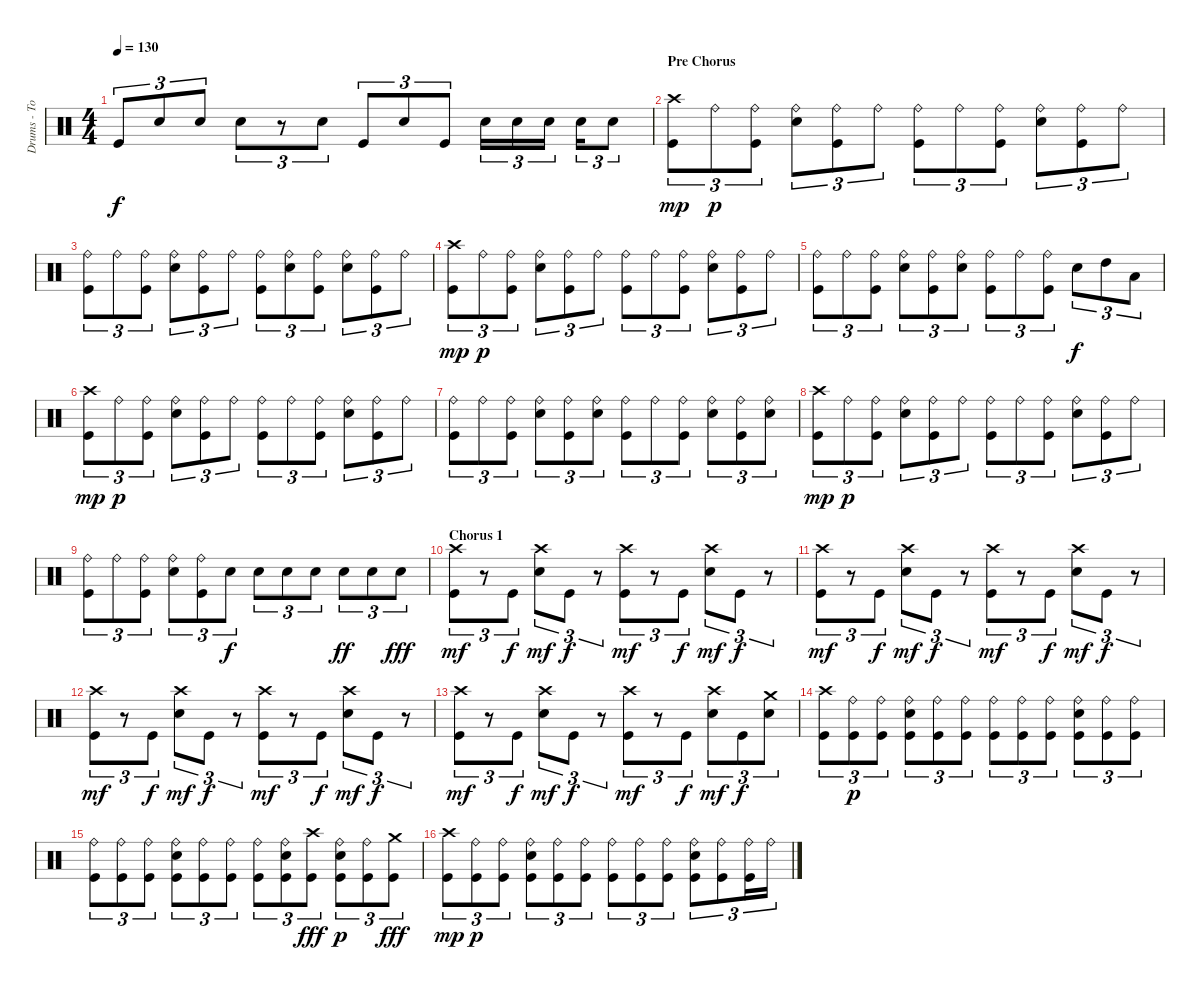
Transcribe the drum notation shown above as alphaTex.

\track ("Drums - Tomas" "Drums - To") {instrument percussion}
\staff {score}
\articulation defaults
\ts (4 4)
\tempo 130
\clef neutral
\ks c "Kick (hit)".8{tu (3 2) dy f} "Electric Snare (hit)".8{tu (3 2)} "Electric Snare (hit)".8{tu (3 2)} "Electric Snare (hit)".8{tu (3 2)}
r.8{tu (3 2)} "Electric Snare (hit)".8{tu (3 2)} "Kick (hit)".8{tu (3 2)} "Electric Snare (hit)".8{tu (3 2)} "Kick (hit)".8{tu (3 2)} "Electric Snare (hit)".16{tu (3 2)} "Electric Snare (hit)".16{tu (3 2)} "Electric Snare (hit)".16{tu (3 2)} "Electric Snare (hit)".16{tu (3 2)} "Electric Snare (hit)".8{tu (3 2)} |
\section ("" "Pre Chorus")
("Crash high (hit)" "Kick (hit)").8{tu (3 2) dy mp} "Ride (bell)".8{tu (3 2) dy p} ("Ride (bell)" "Kick (hit)").8{tu (3 2)} ("Ride (bell)" "Electric Snare (hit)").8{tu (3 2)} ("Ride (bell)" "Kick (hit)").8{tu (3 2)} "Ride (bell)".8{tu (3 2)} ("Ride (bell)" "Kick (hit)").8{tu (3 2)} "Ride (bell)".8{tu (3 2)} ("Ride (bell)" "Kick (hit)").8{tu (3 2)} ("Ride (bell)" "Electric Snare (hit)").8{tu (3 2)} ("Ride (bell)" "Kick (hit)").8{tu (3 2)} "Ride (bell)".8{tu (3 2)} |
("Ride (bell)" "Kick (hit)").8{tu (3 2)} "Ride (bell)".8{tu (3 2)} ("Ride (bell)" "Kick (hit)").8{tu (3 2)} ("Ride (bell)" "Electric Snare (hit)").8{tu (3 2)} ("Ride (bell)" "Kick (hit)").8{tu (3 2)} "Ride (bell)".8{tu (3 2)} ("Ride (bell)" "Kick (hit)").8{tu (3 2)} ("Ride (bell)" "Electric Snare (hit)").8{tu (3 2)} ("Ride (bell)" "Kick (hit)").8{tu (3 2)} ("Ride (bell)" "Electric Snare (hit)").8{tu (3 2)} ("Ride (bell)" "Kick (hit)").8{tu (3 2)} "Ride (bell)".8{tu (3 2)} |
("Crash high (hit)" "Kick (hit)").8{tu (3 2) dy mp} "Ride (bell)".8{tu (3 2) dy p} ("Ride (bell)" "Kick (hit)").8{tu (3 2)} ("Ride (bell)" "Electric Snare (hit)").8{tu (3 2)} ("Ride (bell)" "Kick (hit)").8{tu (3 2)} "Ride (bell)".8{tu (3 2)} ("Ride (bell)" "Kick (hit)").8{tu (3 2)} "Ride (bell)".8{tu (3 2)} ("Ride (bell)" "Kick (hit)").8{tu (3 2)} ("Ride (bell)" "Electric Snare (hit)").8{tu (3 2)} ("Ride (bell)" "Kick (hit)").8{tu (3 2)} "Ride (bell)".8{tu (3 2)} |
("Ride (bell)" "Kick (hit)").8{tu (3 2)} "Ride (bell)".8{tu (3 2)} ("Ride (bell)" "Kick (hit)").8{tu (3 2)} ("Ride (bell)" "Electric Snare (hit)").8{tu (3 2)} ("Ride (bell)" "Kick (hit)").8{tu (3 2)} ("Ride (bell)" "Electric Snare (hit)").8{tu (3 2)} ("Ride (bell)" "Kick (hit)").8{tu (3 2)} "Ride (bell)".8{tu (3 2)} ("Ride (bell)" "Kick (hit)").8{tu (3 2)} "Electric Snare (hit)".8{tu (3 2) dy f} "High Tom (hit)".8{tu (3 2)} "Low Tom (hit)".8{tu (3 2)} |
("Crash high (hit)" "Kick (hit)").8{tu (3 2) dy mp} "Ride (bell)".8{tu (3 2) dy p} ("Ride (bell)" "Kick (hit)").8{tu (3 2)} ("Ride (bell)" "Electric Snare (hit)").8{tu (3 2)} ("Ride (bell)" "Kick (hit)").8{tu (3 2)} "Ride (bell)".8{tu (3 2)} ("Ride (bell)" "Kick (hit)").8{tu (3 2)} "Ride (bell)".8{tu (3 2)} ("Ride (bell)" "Kick (hit)").8{tu (3 2)} ("Ride (bell)" "Electric Snare (hit)").8{tu (3 2)} ("Ride (bell)" "Kick (hit)").8{tu (3 2)} "Ride (bell)".8{tu (3 2)} |
("Ride (bell)" "Kick (hit)").8{tu (3 2)} "Ride (bell)".8{tu (3 2)} ("Ride (bell)" "Kick (hit)").8{tu (3 2)} ("Ride (bell)" "Electric Snare (hit)").8{tu (3 2)} ("Ride (bell)" "Kick (hit)").8{tu (3 2)} ("Ride (bell)" "Electric Snare (hit)").8{tu (3 2)} ("Ride (bell)" "Kick (hit)").8{tu (3 2)} "Ride (bell)".8{tu (3 2)} ("Ride (bell)" "Kick (hit)").8{tu (3 2)} ("Ride (bell)" "Electric Snare (hit)").8{tu (3 2)} ("Ride (bell)" "Kick (hit)").8{tu (3 2)} ("Ride (bell)" "Electric Snare (hit)").8{tu (3 2)} |
("Crash high (hit)" "Kick (hit)").8{tu (3 2) dy mp} "Ride (bell)".8{tu (3 2) dy p} ("Ride (bell)" "Kick (hit)").8{tu (3 2)} ("Ride (bell)" "Electric Snare (hit)").8{tu (3 2)} ("Ride (bell)" "Kick (hit)").8{tu (3 2)} "Ride (bell)".8{tu (3 2)} ("Ride (bell)" "Kick (hit)").8{tu (3 2)} "Ride (bell)".8{tu (3 2)} ("Ride (bell)" "Kick (hit)").8{tu (3 2)} ("Ride (bell)" "Electric Snare (hit)").8{tu (3 2)} ("Ride (bell)" "Kick (hit)").8{tu (3 2)} "Ride (bell)".8{tu (3 2)} |
("Ride (bell)" "Kick (hit)").8{tu (3 2)} "Ride (bell)".8{tu (3 2)} ("Ride (bell)" "Kick (hit)").8{tu (3 2)} ("Ride (bell)" "Electric Snare (hit)").8{tu (3 2)} ("Ride (bell)" "Kick (hit)").8{tu (3 2)} "Electric Snare (hit)".8{tu (3 2) dy f} "Electric Snare (hit)".8{tu (3 2)} "Electric Snare (hit)".8{tu (3 2)} "Electric Snare (hit)".8{tu (3 2)} "Electric Snare (hit)".8{tu (3 2) dy ff} "Electric Snare (hit)".8{tu (3 2)} "Electric Snare (hit)".8{tu (3 2) dy fff} |
\section ("" "Chorus 1")
("Crash high (hit)" "Kick (hit)").8{tu (3 2) dy mf} r.8{tu (3 2)} "Kick (hit)".8{tu (3 2) dy f} ("Crash high (hit)" "Electric Snare (hit)").8{tu (3 2) dy mf} "Kick (hit)".8{tu (3 2) dy f} r.8{tu (3 2)} ("Crash high (hit)" "Kick (hit)").8{tu (3 2) dy mf} r.8{tu (3 2)} "Kick (hit)".8{tu (3 2) dy f} ("Crash high (hit)" "Electric Snare (hit)").8{tu (3 2) dy mf} "Kick (hit)".8{tu (3 2) dy f} r.8{tu (3 2)} |
("Crash high (hit)" "Kick (hit)").8{tu (3 2) dy mf} r.8{tu (3 2)} "Kick (hit)".8{tu (3 2) dy f} ("Crash high (hit)" "Electric Snare (hit)").8{tu (3 2) dy mf} "Kick (hit)".8{tu (3 2) dy f} r.8{tu (3 2)} ("Crash high (hit)" "Kick (hit)").8{tu (3 2) dy mf} r.8{tu (3 2)} "Kick (hit)".8{tu (3 2) dy f} ("Crash high (hit)" "Electric Snare (hit)").8{tu (3 2) dy mf} "Kick (hit)".8{tu (3 2) dy f} r.8{tu (3 2)} |
("Crash high (hit)" "Kick (hit)").8{tu (3 2) dy mf} r.8{tu (3 2)} "Kick (hit)".8{tu (3 2) dy f} ("Crash high (hit)" "Electric Snare (hit)").8{tu (3 2) dy mf} "Kick (hit)".8{tu (3 2) dy f} r.8{tu (3 2)} ("Crash high (hit)" "Kick (hit)").8{tu (3 2) dy mf} r.8{tu (3 2)} "Kick (hit)".8{tu (3 2) dy f} ("Crash high (hit)" "Electric Snare (hit)").8{tu (3 2) dy mf} "Kick (hit)".8{tu (3 2) dy f} r.8{tu (3 2)} |
("Crash high (hit)" "Kick (hit)").8{tu (3 2) dy mf} r.8{tu (3 2)} "Kick (hit)".8{tu (3 2) dy f} ("Crash high (hit)" "Electric Snare (hit)").8{tu (3 2) dy mf} "Kick (hit)".8{tu (3 2) dy f} r.8{tu (3 2)} ("Crash high (hit)" "Kick (hit)").8{tu (3 2) dy mf} r.8{tu (3 2)} "Kick (hit)".8{tu (3 2) dy f} ("Crash high (hit)" "Electric Snare (hit)").8{tu (3 2) dy mf} "Kick (hit)".8{tu (3 2) dy f} ("Crash medium (hit)" "Electric Snare (hit)").8{tu (3 2)} |
("Crash high (hit)" "Kick (hit)").8{tu (3 2)} ("Ride (bell)" "Kick (hit)").8{tu (3 2) dy p} ("Ride (bell)" "Kick (hit)").8{tu (3 2)} ("Ride (bell)" "Electric Snare (hit)" "Kick (hit)").8{tu (3 2)} ("Ride (bell)" "Kick (hit)").8{tu (3 2)} ("Ride (bell)" "Kick (hit)").8{tu (3 2)} ("Ride (bell)" "Kick (hit)").8{tu (3 2)} ("Ride (bell)" "Kick (hit)").8{tu (3 2)} ("Ride (bell)" "Kick (hit)").8{tu (3 2)} ("Ride (bell)" "Electric Snare (hit)" "Kick (hit)").8{tu (3 2)} ("Ride (bell)" "Kick (hit)").8{tu (3 2)} ("Ride (bell)" "Kick (hit)").8{tu (3 2)} |
("Ride (bell)" "Kick (hit)").8{tu (3 2)} ("Ride (bell)" "Kick (hit)").8{tu (3 2)} ("Ride (bell)" "Kick (hit)").8{tu (3 2)} ("Ride (bell)" "Electric Snare (hit)" "Kick (hit)").8{tu (3 2)} ("Ride (bell)" "Kick (hit)").8{tu (3 2)} ("Ride (bell)" "Kick (hit)").8{tu (3 2)} ("Ride (bell)" "Kick (hit)").8{tu (3 2)} ("Ride (bell)" "Electric Snare (hit)" "Kick (hit)").8{tu (3 2)} ("Crash high (hit)" "Kick (hit)").8{tu (3 2) dy fff} ("Ride (bell)" "Electric Snare (hit)" "Kick (hit)").8{tu (3 2) dy p} ("Ride (bell)" "Kick (hit)").8{tu (3 2)} ("Crash medium (hit)" "Kick (hit)").8{tu (3 2) dy fff} |
("Crash high (hit)" "Kick (hit)").8{tu (3 2) dy mp} ("Ride (bell)" "Kick (hit)").8{tu (3 2) dy p} ("Ride (bell)" "Kick (hit)").8{tu (3 2)} ("Ride (bell)" "Electric Snare (hit)" "Kick (hit)").8{tu (3 2)} ("Ride (bell)" "Kick (hit)").8{tu (3 2)} ("Ride (bell)" "Kick (hit)").8{tu (3 2)} ("Ride (bell)" "Kick (hit)").8{tu (3 2)} ("Ride (bell)" "Kick (hit)").8{tu (3 2)} ("Ride (bell)" "Kick (hit)").8{tu (3 2)} ("Ride (bell)" "Electric Snare (hit)" "Kick (hit)").8{tu (3 2)} ("Ride (bell)" "Kick (hit)").8{tu (3 2)} ("Ride (bell)" "Kick (hit)").16{tu (3 2)} "Ride (bell)".16{tu (3 2)}
